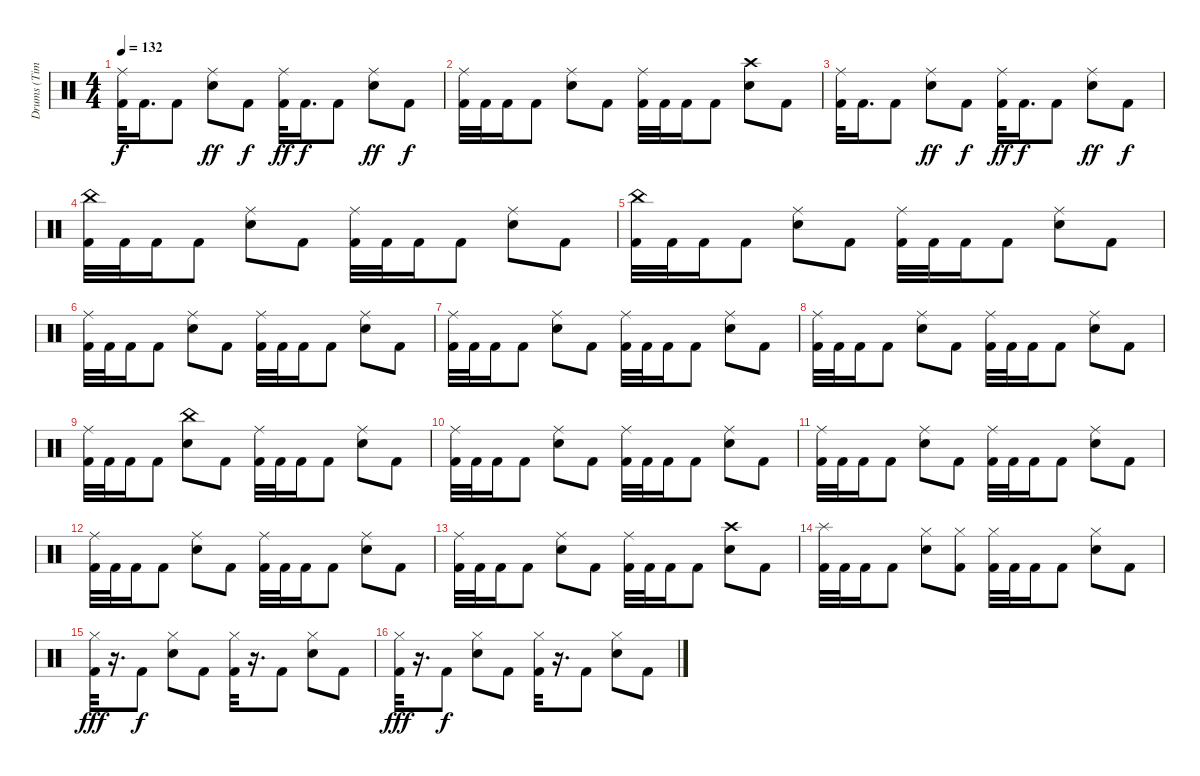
\track ("Drums (Tim Alexander)" "Drums (Tim") {instrument percussion}
\staff {score}
\articulation defaults
\ts (4 4)
\tempo 132
\clef neutral
\ks c
("Ride (middle)" "Kick (hit) 2").32{dy f} "Kick (hit) 2".16{d} "Kick (hit) 2".8 ("Ride (middle)" "Snare (hit) 2").8{dy ff} "Kick (hit) 2".8{dy f} ("Ride (middle)" "Kick (hit) 2").32{dy ff} "Kick (hit) 2".16{d dy f} "Kick (hit) 2".8 ("Ride (middle)" "Snare (hit) 2").8{dy ff} "Kick (hit) 2".8{dy f} |
("Ride (middle)" "Kick (hit) 2").32 "Kick (hit) 2".32 "Kick (hit) 2".16 "Kick (hit) 2".8 ("Ride (middle)" "Snare (hit) 2").8 "Kick (hit) 2".8 ("Ride (middle)" "Kick (hit) 2").32 "Kick (hit) 2".32 "Kick (hit) 2".16 "Kick (hit) 2".8 ("Crash high (hit)" "Snare (hit) 2").8 "Kick (hit) 2".8 |
("Ride (middle)" "Kick (hit) 2").32 "Kick (hit) 2".16{d} "Kick (hit) 2".8 ("Ride (middle)" "Snare (hit) 2").8{dy ff} "Kick (hit) 2".8{dy f} ("Ride (middle)" "Kick (hit) 2").32{dy ff} "Kick (hit) 2".16{d dy f} "Kick (hit) 2".8 ("Ride (middle)" "Snare (hit) 2").8{dy ff} "Kick (hit) 2".8{dy f} |
("China (hit)" "Kick (hit) 2").32 "Kick (hit) 2".32 "Kick (hit) 2".16 "Kick (hit) 2".8 ("Ride (middle)" "Snare (hit) 2").8 "Kick (hit) 2".8 ("Ride (middle)" "Kick (hit) 2").32 "Kick (hit) 2".32 "Kick (hit) 2".16 "Kick (hit) 2".8 ("Ride (middle)" "Snare (hit) 2").8 "Kick (hit) 2".8 |
("China (hit)" "Kick (hit) 2").32 "Kick (hit) 2".32 "Kick (hit) 2".16 "Kick (hit) 2".8 ("Ride (middle)" "Snare (hit) 2").8 "Kick (hit) 2".8 ("Ride (middle)" "Kick (hit) 2").32 "Kick (hit) 2".32 "Kick (hit) 2".16 "Kick (hit) 2".8 ("Ride (middle)" "Snare (hit) 2").8 "Kick (hit) 2".8 |
("Ride (middle)" "Kick (hit) 2").32 "Kick (hit) 2".32 "Kick (hit) 2".16 "Kick (hit) 2".8 ("Ride (middle)" "Snare (hit) 2").8 "Kick (hit) 2".8 ("Ride (middle)" "Kick (hit) 2").32 "Kick (hit) 2".32 "Kick (hit) 2".16 "Kick (hit) 2".8 ("Ride (middle)" "Snare (hit) 2").8 "Kick (hit) 2".8 |
("Ride (middle)" "Kick (hit) 2").32 "Kick (hit) 2".32 "Kick (hit) 2".16 "Kick (hit) 2".8 ("Ride (middle)" "Snare (hit) 2").8 "Kick (hit) 2".8 ("Ride (middle)" "Kick (hit) 2").32 "Kick (hit) 2".32 "Kick (hit) 2".16 "Kick (hit) 2".8 ("Ride (middle)" "Snare (hit) 2").8 "Kick (hit) 2".8 |
("Ride (middle)" "Kick (hit) 2").32 "Kick (hit) 2".32 "Kick (hit) 2".16 "Kick (hit) 2".8 ("Ride (middle)" "Snare (hit) 2").8 "Kick (hit) 2".8 ("Ride (middle)" "Kick (hit) 2").32 "Kick (hit) 2".32 "Kick (hit) 2".16 "Kick (hit) 2".8 ("Ride (middle)" "Snare (hit) 2").8 "Kick (hit) 2".8 |
("Ride (middle)" "Kick (hit) 2").32 "Kick (hit) 2".32 "Kick (hit) 2".16 "Kick (hit) 2".8 ("China (hit)" "Snare (hit) 2").8 "Kick (hit) 2".8 ("Ride (middle)" "Kick (hit) 2").32 "Kick (hit) 2".32 "Kick (hit) 2".16 "Kick (hit) 2".8 ("Ride (middle)" "Snare (hit) 2").8 "Kick (hit) 2".8 |
("Ride (middle)" "Kick (hit) 2").32 "Kick (hit) 2".32 "Kick (hit) 2".16 "Kick (hit) 2".8 ("Ride (middle)" "Snare (hit) 2").8 "Kick (hit) 2".8 ("Ride (middle)" "Kick (hit) 2").32 "Kick (hit) 2".32 "Kick (hit) 2".16 "Kick (hit) 2".8 ("Ride (middle)" "Snare (hit) 2").8 "Kick (hit) 2".8 |
("Ride (middle)" "Kick (hit) 2").32 "Kick (hit) 2".32 "Kick (hit) 2".16 "Kick (hit) 2".8 ("Ride (middle)" "Snare (hit) 2").8 "Kick (hit) 2".8 ("Ride (middle)" "Kick (hit) 2").32 "Kick (hit) 2".32 "Kick (hit) 2".16 "Kick (hit) 2".8 ("Ride (middle)" "Snare (hit) 2").8 "Kick (hit) 2".8 |
("Ride (middle)" "Kick (hit) 2").32 "Kick (hit) 2".32 "Kick (hit) 2".16 "Kick (hit) 2".8 ("Ride (middle)" "Snare (hit) 2").8 "Kick (hit) 2".8 ("Ride (middle)" "Kick (hit) 2").32 "Kick (hit) 2".32 "Kick (hit) 2".16 "Kick (hit) 2".8 ("Ride (middle)" "Snare (hit) 2").8 "Kick (hit) 2".8 |
("Ride (middle)" "Kick (hit) 2").32 "Kick (hit) 2".32 "Kick (hit) 2".16 "Kick (hit) 2".8 ("Ride (middle)" "Snare (hit) 2").8 "Kick (hit) 2".8 ("Ride (middle)" "Kick (hit) 2").32 "Kick (hit) 2".32 "Kick (hit) 2".16 "Kick (hit) 2".8 ("Crash high (hit)" "Snare (hit) 2").8 "Kick (hit) 2".8 |
("Splash (hit)" "Kick (hit) 2").32 "Kick (hit) 2".32 "Kick (hit) 2".16 "Kick (hit) 2".8 ("Hi-Hat (closed)" "Snare (hit) 2").8 ("Hi-Hat (closed)" "Kick (hit) 2").8 ("Hi-Hat (closed)" "Kick (hit) 2").32 "Kick (hit) 2".32 "Kick (hit) 2".16 "Kick (hit) 2".8 ("Hi-Hat (closed)" "Snare (hit) 2").8 "Kick (hit) 2".8 |
("Hi-Hat (closed)" "Kick (hit) 2").32{dy fff} r.16{d} "Kick (hit) 2".8{dy f} ("Hi-Hat (closed)" "Snare (hit) 2").8 "Kick (hit) 2".8 ("Hi-Hat (closed)" "Kick (hit) 2").32 r.16{d} "Kick (hit) 2".8 ("Hi-Hat (closed)" "Snare (hit) 2").8 "Kick (hit) 2".8 |
("Hi-Hat (closed)" "Kick (hit) 2").32{dy fff} r.16{d} "Kick (hit) 2".8{dy f} ("Hi-Hat (closed)" "Snare (hit) 2").8 "Kick (hit) 2".8 ("Hi-Hat (closed)" "Kick (hit) 2").32 r.16{d} "Kick (hit) 2".8 ("Hi-Hat (closed)" "Snare (hit) 2").8 "Kick (hit) 2".8
